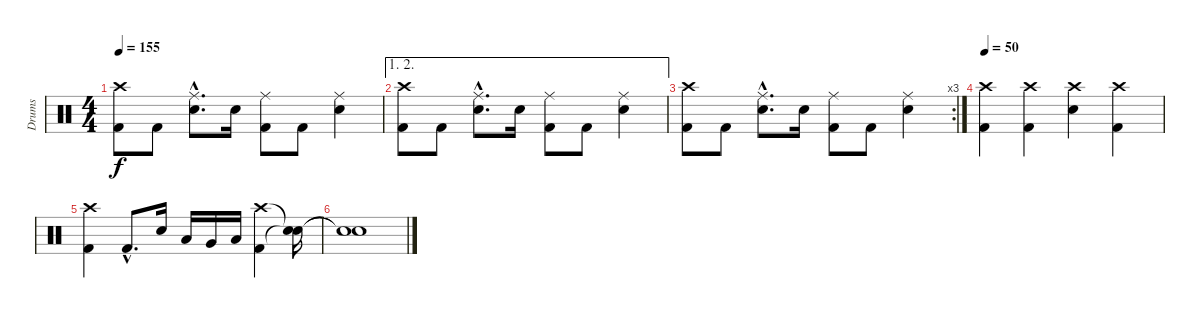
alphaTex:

\track ("Drums" "Drums") {instrument percussion}
\staff {score}
\articulation defaults
\ts (4 4)
\tempo 155
\clef neutral
\ks c
("Crash high (hit)" "Kick (hit) 2").8{dy f} "Kick (hit) 2".8 ("Ride (middle)"{hac} "Snare (hit) 2"{hac}).8{d} "Snare (hit) 2".16 ("Ride (middle)" "Kick (hit) 2").8 "Kick (hit) 2".8 ("Ride (middle)" "Snare (hit) 2").4 |
\ae (1 2)
("Crash high (hit)" "Kick (hit) 2").8 "Kick (hit) 2".8 ("Ride (middle)"{hac} "Snare (hit) 2"{hac}).8{d} "Snare (hit) 2".16 ("Ride (middle)" "Kick (hit) 2").8 "Kick (hit) 2".8 ("Ride (middle)" "Snare (hit) 2").4 |
\rc 3
("Crash high (hit)" "Kick (hit) 2").8 "Kick (hit) 2".8 ("Ride (middle)"{hac} "Snare (hit) 2"{hac}).8{d} "Snare (hit) 2".16 ("Ride (middle)" "Kick (hit) 2").8 "Kick (hit) 2".8 ("Ride (middle)" "Snare (hit) 2").4 |
\tempo 50
("Crash high (hit)" "Kick (hit) 2").4 ("Crash high (hit)" "Kick (hit) 2").4 ("Crash high (hit)" "Snare (hit) 2").4 ("Crash high (hit)" "Kick (hit) 2").4 |
("Crash high (hit)" "Kick (hit) 2").4 "Kick (hit) 2"{hac}.8{d} "Snare (hit) 2".16 "Low Tom (hit)".16 "Very Low Tom (hit)".16 "Low Floor Tom (hit)".16 ("Crash high (hit)" "Kick (hit) 2").4 ("Snare (hit)"{t} "Snare (hit)"{t}).16 |
("Snare (hit)"{t} "Snare (hit)"{t}).1
